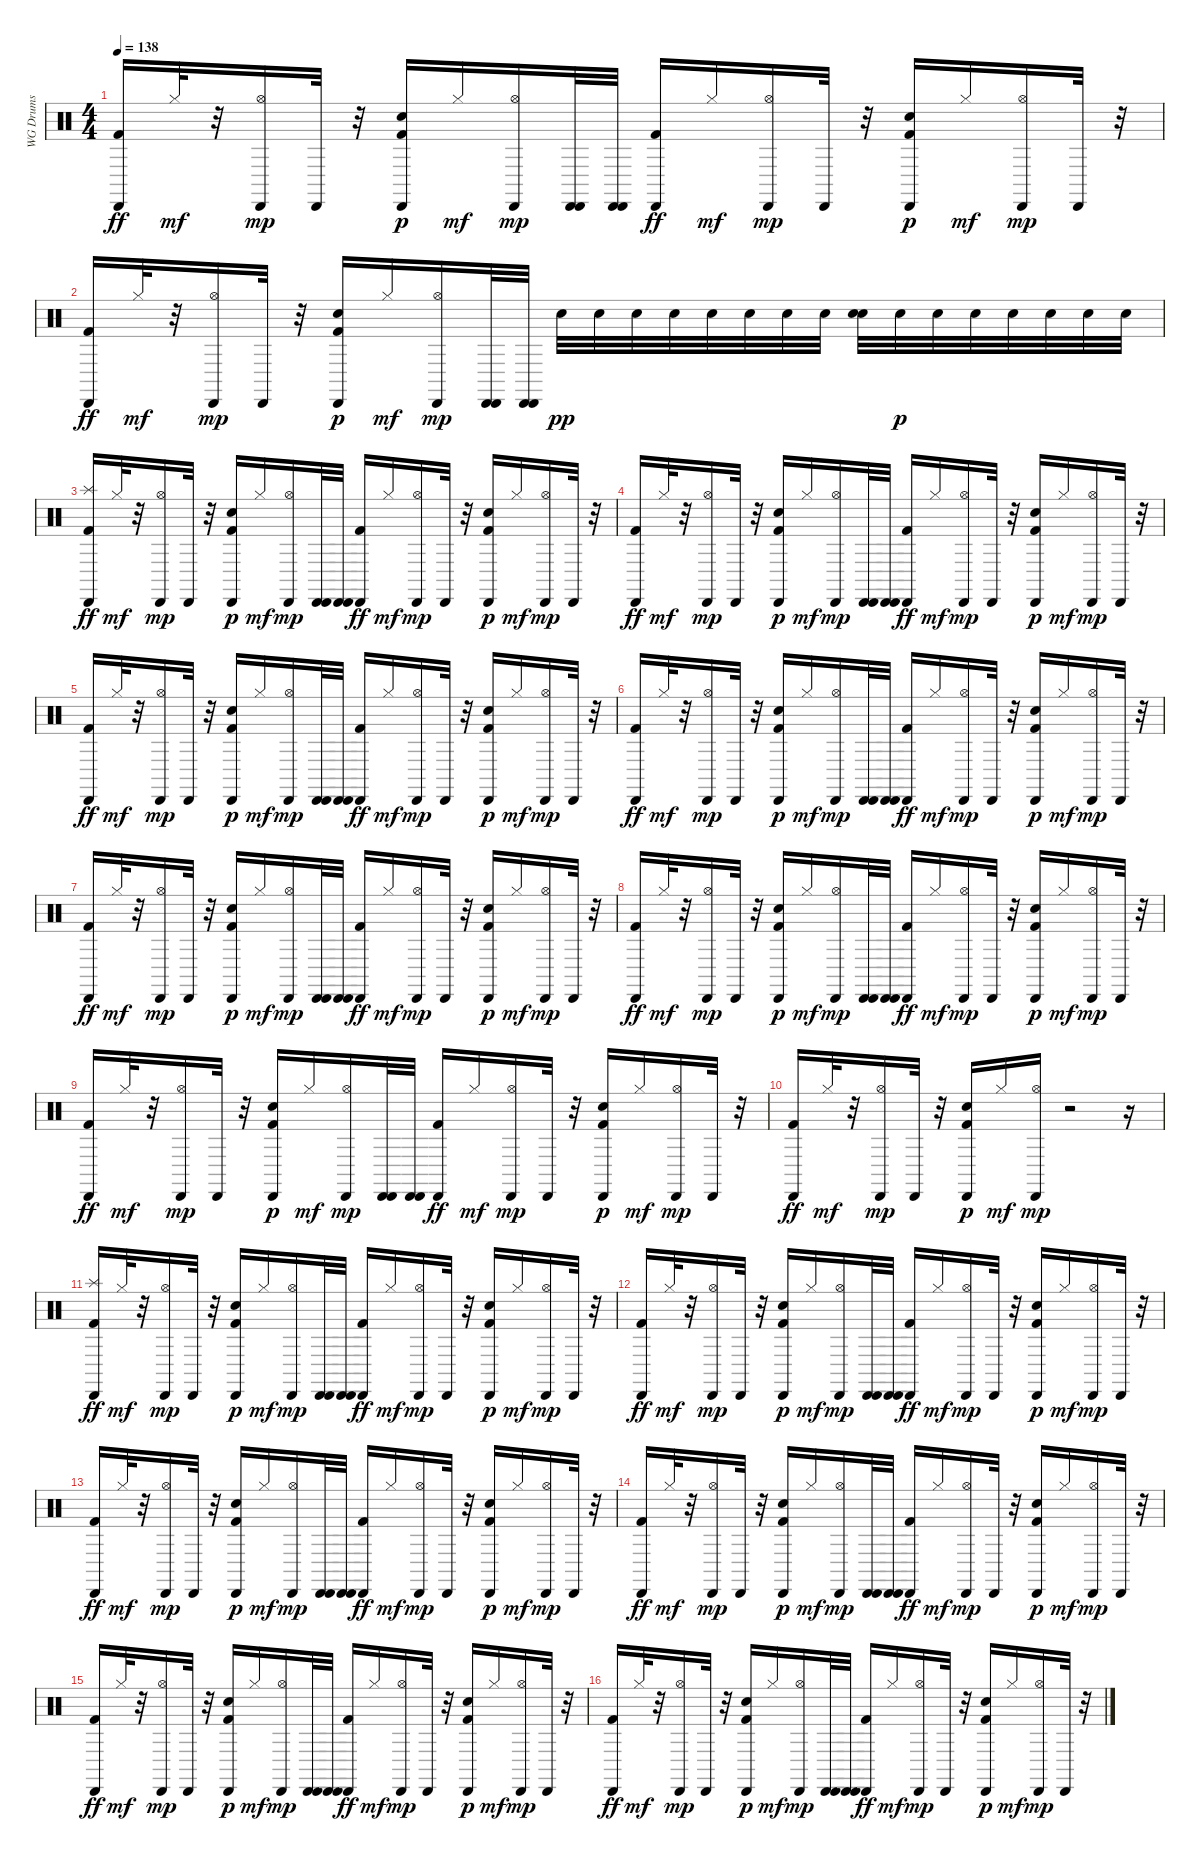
\track ("WG Drums" "WG Drums") {instrument percussion}
\staff {score}
\articulation defaults
\ts (4 4)
\tempo 138
\clef neutral
\ks c
("Cabasa (hit)" "Kick (hit) 2").16{dy ff} "Hi-Hat (closed)".32{dy mf} r.32 ("Cabasa (hit)" "Hi-Hat (open)").16{dy mp} "Cabasa (hit)".32 r.32 ("Cabasa (hit)" "Kick (hit) 2" "Hand Clap (hit)").16{dy p} "Hi-Hat (closed)".16{dy mf} ("Cabasa (hit)" "Hi-Hat (open)").16{dy mp} ("Cabasa (hit)" "Cabasa (hit)").32 ("Cabasa (hit)" "Cabasa (hit)").32 ("Cabasa (hit)" "Kick (hit) 2").16{dy ff} "Hi-Hat (closed)".16{dy mf} ("Cabasa (hit)" "Hi-Hat (open)").16{dy mp} "Cabasa (hit)".32 r.32 ("Cabasa (hit)" "Kick (hit) 2" "Hand Clap (hit)").16{dy p} "Hi-Hat (closed)".16{dy mf} ("Cabasa (hit)" "Hi-Hat (open)").16{dy mp} "Cabasa (hit)".32 r.32 |
("Cabasa (hit)" "Kick (hit) 2").16{dy ff} "Hi-Hat (closed)".32{dy mf} r.32 ("Cabasa (hit)" "Hi-Hat (open)").16{dy mp} "Cabasa (hit)".32 r.32 ("Cabasa (hit)" "Kick (hit) 2" "Hand Clap (hit)").16{dy p} "Hi-Hat (closed)".16{dy mf} ("Cabasa (hit)" "Hi-Hat (open)").16{dy mp} ("Cabasa (hit)" "Cabasa (hit)").32 ("Cabasa (hit)" "Cabasa (hit)").32 "Electric Snare (hit)".32{dy pp} "Electric Snare (hit)".32 "Electric Snare (hit)".32 "Electric Snare (hit)".32 "Electric Snare (hit)".32 "Electric Snare (hit)".32 "Electric Snare (hit)".32 "Electric Snare (hit)".32 ("Hand Clap (hit)" "Electric Snare (hit)").32 "Electric Snare (hit)".32{dy p} "Electric Snare (hit)".32 "Electric Snare (hit)".32 "Electric Snare (hit)".32 "Electric Snare (hit)".32 "Electric Snare (hit)".32 "Electric Snare (hit)".32 |
("Splash (hit)" "Cabasa (hit)" "Kick (hit) 2").16{dy ff} "Hi-Hat (closed)".32{dy mf} r.32 ("Cabasa (hit)" "Hi-Hat (open)").16{dy mp} "Cabasa (hit)".32 r.32 ("Cabasa (hit)" "Kick (hit) 2" "Hand Clap (hit)").16{dy p} "Hi-Hat (closed)".16{dy mf} ("Cabasa (hit)" "Hi-Hat (open)").16{dy mp} ("Cabasa (hit)" "Cabasa (hit)").32 ("Cabasa (hit)" "Cabasa (hit)").32 ("Cabasa (hit)" "Kick (hit) 2").16{dy ff} "Hi-Hat (closed)".16{dy mf} ("Cabasa (hit)" "Hi-Hat (open)").16{dy mp} "Cabasa (hit)".32 r.32 ("Cabasa (hit)" "Kick (hit) 2" "Hand Clap (hit)").16{dy p} "Hi-Hat (closed)".16{dy mf} ("Cabasa (hit)" "Hi-Hat (open)").16{dy mp} "Cabasa (hit)".32 r.32 |
("Cabasa (hit)" "Kick (hit) 2").16{dy ff} "Hi-Hat (closed)".32{dy mf} r.32 ("Cabasa (hit)" "Hi-Hat (open)").16{dy mp} "Cabasa (hit)".32 r.32 ("Cabasa (hit)" "Kick (hit) 2" "Hand Clap (hit)").16{dy p} "Hi-Hat (closed)".16{dy mf} ("Cabasa (hit)" "Hi-Hat (open)").16{dy mp} ("Cabasa (hit)" "Cabasa (hit)").32 ("Cabasa (hit)" "Cabasa (hit)").32 ("Cabasa (hit)" "Kick (hit) 2").16{dy ff} "Hi-Hat (closed)".16{dy mf} ("Cabasa (hit)" "Hi-Hat (open)").16{dy mp} "Cabasa (hit)".32 r.32 ("Cabasa (hit)" "Kick (hit) 2" "Hand Clap (hit)").16{dy p} "Hi-Hat (closed)".16{dy mf} ("Cabasa (hit)" "Hi-Hat (open)").16{dy mp} "Cabasa (hit)".32 r.32 |
("Cabasa (hit)" "Kick (hit) 2").16{dy ff} "Hi-Hat (closed)".32{dy mf} r.32 ("Cabasa (hit)" "Hi-Hat (open)").16{dy mp} "Cabasa (hit)".32 r.32 ("Cabasa (hit)" "Kick (hit) 2" "Hand Clap (hit)").16{dy p} "Hi-Hat (closed)".16{dy mf} ("Cabasa (hit)" "Hi-Hat (open)").16{dy mp} ("Cabasa (hit)" "Cabasa (hit)").32 ("Cabasa (hit)" "Cabasa (hit)").32 ("Cabasa (hit)" "Kick (hit) 2").16{dy ff} "Hi-Hat (closed)".16{dy mf} ("Cabasa (hit)" "Hi-Hat (open)").16{dy mp} "Cabasa (hit)".32 r.32 ("Cabasa (hit)" "Kick (hit) 2" "Hand Clap (hit)").16{dy p} "Hi-Hat (closed)".16{dy mf} ("Cabasa (hit)" "Hi-Hat (open)").16{dy mp} "Cabasa (hit)".32 r.32 |
("Cabasa (hit)" "Kick (hit) 2").16{dy ff} "Hi-Hat (closed)".32{dy mf} r.32 ("Cabasa (hit)" "Hi-Hat (open)").16{dy mp} "Cabasa (hit)".32 r.32 ("Cabasa (hit)" "Kick (hit) 2" "Hand Clap (hit)").16{dy p} "Hi-Hat (closed)".16{dy mf} ("Cabasa (hit)" "Hi-Hat (open)").16{dy mp} ("Cabasa (hit)" "Cabasa (hit)").32 ("Cabasa (hit)" "Cabasa (hit)").32 ("Cabasa (hit)" "Kick (hit) 2").16{dy ff} "Hi-Hat (closed)".16{dy mf} ("Cabasa (hit)" "Hi-Hat (open)").16{dy mp} "Cabasa (hit)".32 r.32 ("Cabasa (hit)" "Kick (hit) 2" "Hand Clap (hit)").16{dy p} "Hi-Hat (closed)".16{dy mf} ("Cabasa (hit)" "Hi-Hat (open)").16{dy mp} "Cabasa (hit)".32 r.32 |
("Cabasa (hit)" "Kick (hit) 2").16{dy ff} "Hi-Hat (closed)".32{dy mf} r.32 ("Cabasa (hit)" "Hi-Hat (open)").16{dy mp} "Cabasa (hit)".32 r.32 ("Cabasa (hit)" "Kick (hit) 2" "Hand Clap (hit)").16{dy p} "Hi-Hat (closed)".16{dy mf} ("Cabasa (hit)" "Hi-Hat (open)").16{dy mp} ("Cabasa (hit)" "Cabasa (hit)").32 ("Cabasa (hit)" "Cabasa (hit)").32 ("Cabasa (hit)" "Kick (hit) 2").16{dy ff} "Hi-Hat (closed)".16{dy mf} ("Cabasa (hit)" "Hi-Hat (open)").16{dy mp} "Cabasa (hit)".32 r.32 ("Cabasa (hit)" "Kick (hit) 2" "Hand Clap (hit)").16{dy p} "Hi-Hat (closed)".16{dy mf} ("Cabasa (hit)" "Hi-Hat (open)").16{dy mp} "Cabasa (hit)".32 r.32 |
("Cabasa (hit)" "Kick (hit) 2").16{dy ff} "Hi-Hat (closed)".32{dy mf} r.32 ("Cabasa (hit)" "Hi-Hat (open)").16{dy mp} "Cabasa (hit)".32 r.32 ("Cabasa (hit)" "Kick (hit) 2" "Hand Clap (hit)").16{dy p} "Hi-Hat (closed)".16{dy mf} ("Cabasa (hit)" "Hi-Hat (open)").16{dy mp} ("Cabasa (hit)" "Cabasa (hit)").32 ("Cabasa (hit)" "Cabasa (hit)").32 ("Cabasa (hit)" "Kick (hit) 2").16{dy ff} "Hi-Hat (closed)".16{dy mf} ("Cabasa (hit)" "Hi-Hat (open)").16{dy mp} "Cabasa (hit)".32 r.32 ("Cabasa (hit)" "Kick (hit) 2" "Hand Clap (hit)").16{dy p} "Hi-Hat (closed)".16{dy mf} ("Cabasa (hit)" "Hi-Hat (open)").16{dy mp} "Cabasa (hit)".32 r.32 |
("Cabasa (hit)" "Kick (hit) 2").16{dy ff} "Hi-Hat (closed)".32{dy mf} r.32 ("Cabasa (hit)" "Hi-Hat (open)").16{dy mp} "Cabasa (hit)".32 r.32 ("Cabasa (hit)" "Kick (hit) 2" "Hand Clap (hit)").16{dy p} "Hi-Hat (closed)".16{dy mf} ("Cabasa (hit)" "Hi-Hat (open)").16{dy mp} ("Cabasa (hit)" "Cabasa (hit)").32 ("Cabasa (hit)" "Cabasa (hit)").32 ("Cabasa (hit)" "Kick (hit) 2").16{dy ff} "Hi-Hat (closed)".16{dy mf} ("Cabasa (hit)" "Hi-Hat (open)").16{dy mp} "Cabasa (hit)".32 r.32 ("Cabasa (hit)" "Kick (hit) 2" "Hand Clap (hit)").16{dy p} "Hi-Hat (closed)".16{dy mf} ("Cabasa (hit)" "Hi-Hat (open)").16{dy mp} "Cabasa (hit)".32 r.32 |
("Cabasa (hit)" "Kick (hit) 2").16{dy ff} "Hi-Hat (closed)".32{dy mf} r.32 ("Cabasa (hit)" "Hi-Hat (open)").16{dy mp} "Cabasa (hit)".32 r.32 ("Cabasa (hit)" "Kick (hit) 2" "Hand Clap (hit)").16{dy p} "Hi-Hat (closed)".16{dy mf} ("Cabasa (hit)" "Hi-Hat (open)").16{dy mp} r.2 r.16 |
("Splash (hit)" "Cabasa (hit)" "Kick (hit) 2").16{dy ff} "Hi-Hat (closed)".32{dy mf} r.32 ("Cabasa (hit)" "Hi-Hat (open)").16{dy mp} "Cabasa (hit)".32 r.32 ("Cabasa (hit)" "Kick (hit) 2" "Hand Clap (hit)").16{dy p} "Hi-Hat (closed)".16{dy mf} ("Cabasa (hit)" "Hi-Hat (open)").16{dy mp} ("Cabasa (hit)" "Cabasa (hit)").32 ("Cabasa (hit)" "Cabasa (hit)").32 ("Cabasa (hit)" "Kick (hit) 2").16{dy ff} "Hi-Hat (closed)".16{dy mf} ("Cabasa (hit)" "Hi-Hat (open)").16{dy mp} "Cabasa (hit)".32 r.32 ("Cabasa (hit)" "Kick (hit) 2" "Hand Clap (hit)").16{dy p} "Hi-Hat (closed)".16{dy mf} ("Cabasa (hit)" "Hi-Hat (open)").16{dy mp} "Cabasa (hit)".32 r.32 |
("Cabasa (hit)" "Kick (hit) 2").16{dy ff} "Hi-Hat (closed)".32{dy mf} r.32 ("Cabasa (hit)" "Hi-Hat (open)").16{dy mp} "Cabasa (hit)".32 r.32 ("Cabasa (hit)" "Kick (hit) 2" "Hand Clap (hit)").16{dy p} "Hi-Hat (closed)".16{dy mf} ("Cabasa (hit)" "Hi-Hat (open)").16{dy mp} ("Cabasa (hit)" "Cabasa (hit)").32 ("Cabasa (hit)" "Cabasa (hit)").32 ("Cabasa (hit)" "Kick (hit) 2").16{dy ff} "Hi-Hat (closed)".16{dy mf} ("Cabasa (hit)" "Hi-Hat (open)").16{dy mp} "Cabasa (hit)".32 r.32 ("Cabasa (hit)" "Kick (hit) 2" "Hand Clap (hit)").16{dy p} "Hi-Hat (closed)".16{dy mf} ("Cabasa (hit)" "Hi-Hat (open)").16{dy mp} "Cabasa (hit)".32 r.32 |
("Cabasa (hit)" "Kick (hit) 2").16{dy ff} "Hi-Hat (closed)".32{dy mf} r.32 ("Cabasa (hit)" "Hi-Hat (open)").16{dy mp} "Cabasa (hit)".32 r.32 ("Cabasa (hit)" "Kick (hit) 2" "Hand Clap (hit)").16{dy p} "Hi-Hat (closed)".16{dy mf} ("Cabasa (hit)" "Hi-Hat (open)").16{dy mp} ("Cabasa (hit)" "Cabasa (hit)").32 ("Cabasa (hit)" "Cabasa (hit)").32 ("Cabasa (hit)" "Kick (hit) 2").16{dy ff} "Hi-Hat (closed)".16{dy mf} ("Cabasa (hit)" "Hi-Hat (open)").16{dy mp} "Cabasa (hit)".32 r.32 ("Cabasa (hit)" "Kick (hit) 2" "Hand Clap (hit)").16{dy p} "Hi-Hat (closed)".16{dy mf} ("Cabasa (hit)" "Hi-Hat (open)").16{dy mp} "Cabasa (hit)".32 r.32 |
("Cabasa (hit)" "Kick (hit) 2").16{dy ff} "Hi-Hat (closed)".32{dy mf} r.32 ("Cabasa (hit)" "Hi-Hat (open)").16{dy mp} "Cabasa (hit)".32 r.32 ("Cabasa (hit)" "Kick (hit) 2" "Hand Clap (hit)").16{dy p} "Hi-Hat (closed)".16{dy mf} ("Cabasa (hit)" "Hi-Hat (open)").16{dy mp} ("Cabasa (hit)" "Cabasa (hit)").32 ("Cabasa (hit)" "Cabasa (hit)").32 ("Cabasa (hit)" "Kick (hit) 2").16{dy ff} "Hi-Hat (closed)".16{dy mf} ("Cabasa (hit)" "Hi-Hat (open)").16{dy mp} "Cabasa (hit)".32 r.32 ("Cabasa (hit)" "Kick (hit) 2" "Hand Clap (hit)").16{dy p} "Hi-Hat (closed)".16{dy mf} ("Cabasa (hit)" "Hi-Hat (open)").16{dy mp} "Cabasa (hit)".32 r.32 |
("Cabasa (hit)" "Kick (hit) 2").16{dy ff} "Hi-Hat (closed)".32{dy mf} r.32 ("Cabasa (hit)" "Hi-Hat (open)").16{dy mp} "Cabasa (hit)".32 r.32 ("Cabasa (hit)" "Kick (hit) 2" "Hand Clap (hit)").16{dy p} "Hi-Hat (closed)".16{dy mf} ("Cabasa (hit)" "Hi-Hat (open)").16{dy mp} ("Cabasa (hit)" "Cabasa (hit)").32 ("Cabasa (hit)" "Cabasa (hit)").32 ("Cabasa (hit)" "Kick (hit) 2").16{dy ff} "Hi-Hat (closed)".16{dy mf} ("Cabasa (hit)" "Hi-Hat (open)").16{dy mp} "Cabasa (hit)".32 r.32 ("Cabasa (hit)" "Kick (hit) 2" "Hand Clap (hit)").16{dy p} "Hi-Hat (closed)".16{dy mf} ("Cabasa (hit)" "Hi-Hat (open)").16{dy mp} "Cabasa (hit)".32 r.32 |
("Cabasa (hit)" "Kick (hit) 2").16{dy ff} "Hi-Hat (closed)".32{dy mf} r.32 ("Cabasa (hit)" "Hi-Hat (open)").16{dy mp} "Cabasa (hit)".32 r.32 ("Cabasa (hit)" "Kick (hit) 2" "Hand Clap (hit)").16{dy p} "Hi-Hat (closed)".16{dy mf} ("Cabasa (hit)" "Hi-Hat (open)").16{dy mp} ("Cabasa (hit)" "Cabasa (hit)").32 ("Cabasa (hit)" "Cabasa (hit)").32 ("Cabasa (hit)" "Kick (hit) 2").16{dy ff} "Hi-Hat (closed)".16{dy mf} ("Cabasa (hit)" "Hi-Hat (open)").16{dy mp} "Cabasa (hit)".32 r.32 ("Cabasa (hit)" "Kick (hit) 2" "Hand Clap (hit)").16{dy p} "Hi-Hat (closed)".16{dy mf} ("Cabasa (hit)" "Hi-Hat (open)").16{dy mp} "Cabasa (hit)".32 r.32
